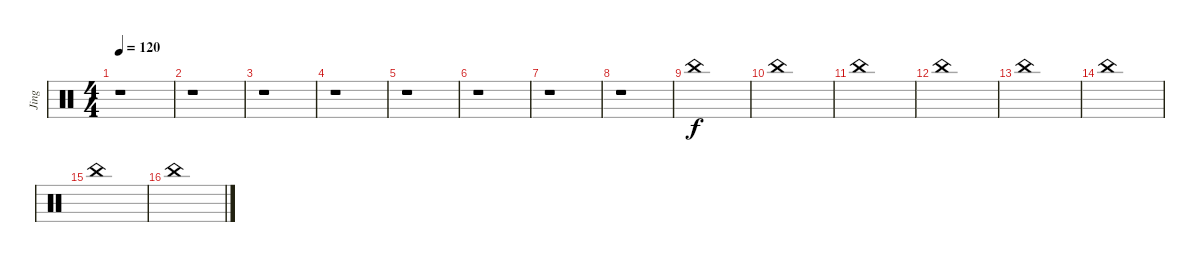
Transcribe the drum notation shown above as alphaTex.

\track ("Jing" "Jing") {instrument percussion}
\staff {score}
\articulation defaults
\ts (4 4)
\tempo 120
\clef neutral
\ks c
r.1{dy f} |
r.1 |
r.1 |
r.1 |
r.1 |
r.1 |
r.1 |
r.1 |
"China (hit)".1 |
"China (hit)".1 |
"China (hit)".1 |
"China (hit)".1 |
"China (hit)".1 |
"China (hit)".1 |
"China (hit)".1 |
"China (hit)".1
